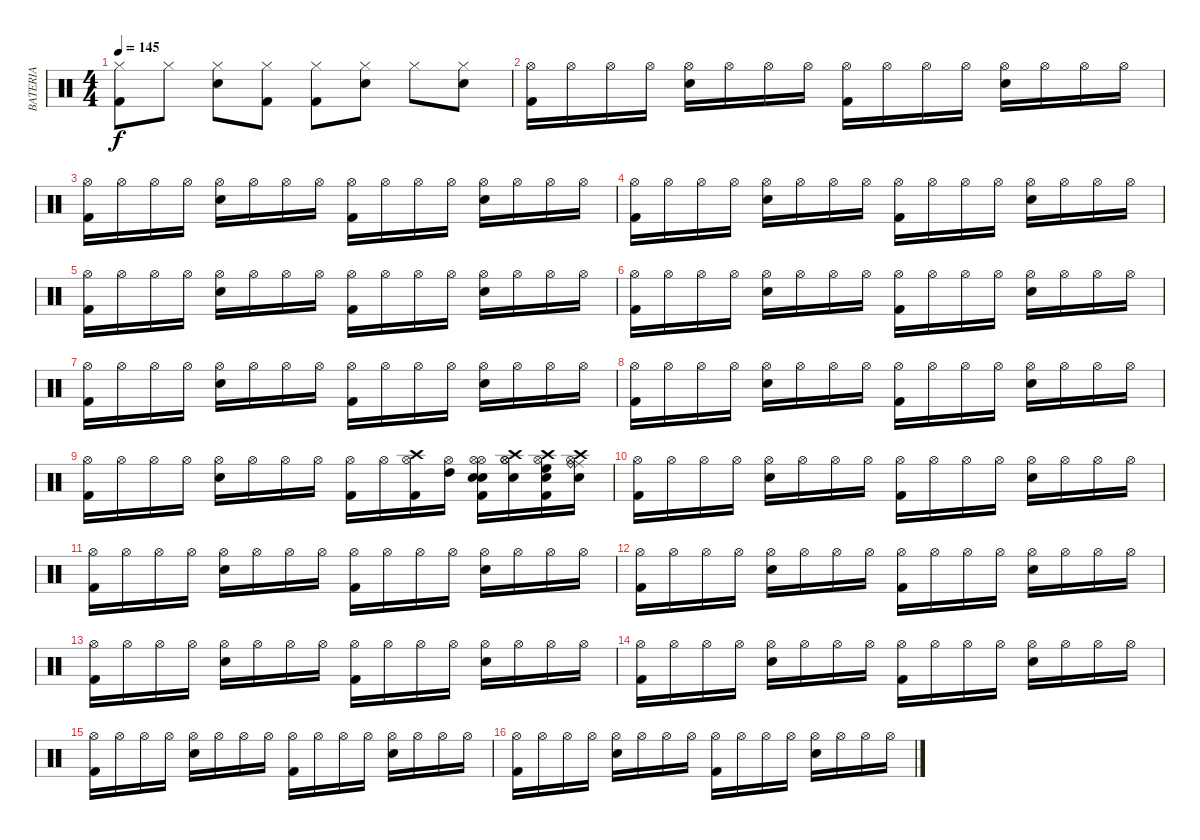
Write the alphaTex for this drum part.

\track ("BATERIA" "BATERIA") {instrument percussion}
\staff {score}
\articulation defaults
\ts (4 4)
\tempo 145
\clef neutral
\ks c
("Kick (hit) 2" "Hi-Hat (closed)").8{dy f} "Hi-Hat (closed)".8 ("Snare (hit) 2" "Hi-Hat (closed)").8 ("Kick (hit) 2" "Hi-Hat (closed)").8 ("Kick (hit) 2" "Hi-Hat (closed)").8 ("Snare (hit) 2" "Hi-Hat (closed)").8 "Hi-Hat (closed)".8 ("Snare (hit) 2" "Hi-Hat (closed)").8 |
("Hi-Hat (open)" "Kick (hit) 2").16 "Hi-Hat (open)".16 "Hi-Hat (open)".16 "Hi-Hat (open)".16 ("Hi-Hat (open)" "Snare (hit) 2").16 "Hi-Hat (open)".16 "Hi-Hat (open)".16 "Hi-Hat (open)".16 ("Hi-Hat (open)" "Kick (hit) 2").16 "Hi-Hat (open)".16 "Hi-Hat (open)".16 "Hi-Hat (open)".16 ("Hi-Hat (open)" "Snare (hit) 2").16 "Hi-Hat (open)".16 "Hi-Hat (open)".16 "Hi-Hat (open)".16 |
("Hi-Hat (open)" "Kick (hit) 2").16 "Hi-Hat (open)".16 "Hi-Hat (open)".16 "Hi-Hat (open)".16 ("Hi-Hat (open)" "Snare (hit) 2").16 "Hi-Hat (open)".16 "Hi-Hat (open)".16 "Hi-Hat (open)".16 ("Hi-Hat (open)" "Kick (hit) 2").16 "Hi-Hat (open)".16 "Hi-Hat (open)".16 "Hi-Hat (open)".16 ("Hi-Hat (open)" "Snare (hit) 2").16 "Hi-Hat (open)".16 "Hi-Hat (open)".16 "Hi-Hat (open)".16 |
("Hi-Hat (open)" "Kick (hit) 2").16 "Hi-Hat (open)".16 "Hi-Hat (open)".16 "Hi-Hat (open)".16 ("Hi-Hat (open)" "Snare (hit) 2").16 "Hi-Hat (open)".16 "Hi-Hat (open)".16 "Hi-Hat (open)".16 ("Hi-Hat (open)" "Kick (hit) 2").16 "Hi-Hat (open)".16 "Hi-Hat (open)".16 "Hi-Hat (open)".16 ("Hi-Hat (open)" "Snare (hit) 2").16 "Hi-Hat (open)".16 "Hi-Hat (open)".16 "Hi-Hat (open)".16 |
("Hi-Hat (open)" "Kick (hit) 2").16 "Hi-Hat (open)".16 "Hi-Hat (open)".16 "Hi-Hat (open)".16 ("Hi-Hat (open)" "Snare (hit) 2").16 "Hi-Hat (open)".16 "Hi-Hat (open)".16 "Hi-Hat (open)".16 ("Hi-Hat (open)" "Kick (hit) 2").16 "Hi-Hat (open)".16 "Hi-Hat (open)".16 "Hi-Hat (open)".16 ("Hi-Hat (open)" "Snare (hit) 2").16 "Hi-Hat (open)".16 "Hi-Hat (open)".16 "Hi-Hat (open)".16 |
("Hi-Hat (open)" "Kick (hit) 2").16 "Hi-Hat (open)".16 "Hi-Hat (open)".16 "Hi-Hat (open)".16 ("Hi-Hat (open)" "Snare (hit) 2").16 "Hi-Hat (open)".16 "Hi-Hat (open)".16 "Hi-Hat (open)".16 ("Hi-Hat (open)" "Kick (hit) 2").16 "Hi-Hat (open)".16 "Hi-Hat (open)".16 "Hi-Hat (open)".16 ("Hi-Hat (open)" "Snare (hit) 2").16 "Hi-Hat (open)".16 "Hi-Hat (open)".16 "Hi-Hat (open)".16 |
("Hi-Hat (open)" "Kick (hit) 2").16 "Hi-Hat (open)".16 "Hi-Hat (open)".16 "Hi-Hat (open)".16 ("Hi-Hat (open)" "Snare (hit) 2").16 "Hi-Hat (open)".16 "Hi-Hat (open)".16 "Hi-Hat (open)".16 ("Hi-Hat (open)" "Kick (hit) 2").16 "Hi-Hat (open)".16 "Hi-Hat (open)".16 "Hi-Hat (open)".16 ("Hi-Hat (open)" "Snare (hit) 2").16 "Hi-Hat (open)".16 "Hi-Hat (open)".16 "Hi-Hat (open)".16 |
("Hi-Hat (open)" "Kick (hit) 2").16 "Hi-Hat (open)".16 "Hi-Hat (open)".16 "Hi-Hat (open)".16 ("Hi-Hat (open)" "Snare (hit) 2").16 "Hi-Hat (open)".16 "Hi-Hat (open)".16 "Hi-Hat (open)".16 ("Hi-Hat (open)" "Kick (hit) 2").16 "Hi-Hat (open)".16 "Hi-Hat (open)".16 "Hi-Hat (open)".16 ("Hi-Hat (open)" "Snare (hit) 2").16 "Hi-Hat (open)".16 "Hi-Hat (open)".16 "Hi-Hat (open)".16 |
("Hi-Hat (open)" "Kick (hit) 2").16 "Hi-Hat (open)".16 "Hi-Hat (open)".16 "Hi-Hat (open)".16 ("Hi-Hat (open)" "Snare (hit) 2").16 "Hi-Hat (open)".16 "Hi-Hat (open)".16 "Hi-Hat (open)".16 ("Hi-Hat (open)" "Kick (hit) 2").16 "Hi-Hat (open)".16 ("Hi-Hat (open)" "Kick (hit) 2" "Crash high (hit)").16 ("Hi-Hat (open)" "High Tom (hit)").16 ("Hi-Hat (open)" "Kick (hit) 2" "Snare (hit) 2" "Hi-Hat (open)" "Snare (hit) 2").16 ("Hi-Hat (open)" "Crash high (hit)" "Hi-Hat (open)" "Snare (hit) 2").16 ("Hi-Hat (open)" "Kick (hit) 2" "Crash high (hit)" "High Floor Tom (hit)" "Snare (hit) 2").16 ("Hi-Hat (open)" "Crash high (hit)" "Ride (middle)" "Ride (bell)" "Snare (hit) 2").16 |
("Hi-Hat (open)" "Kick (hit) 2").16 "Hi-Hat (open)".16 "Hi-Hat (open)".16 "Hi-Hat (open)".16 ("Hi-Hat (open)" "Snare (hit) 2").16 "Hi-Hat (open)".16 "Hi-Hat (open)".16 "Hi-Hat (open)".16 ("Hi-Hat (open)" "Kick (hit) 2").16 "Hi-Hat (open)".16 "Hi-Hat (open)".16 "Hi-Hat (open)".16 ("Hi-Hat (open)" "Snare (hit) 2").16 "Hi-Hat (open)".16 "Hi-Hat (open)".16 "Hi-Hat (open)".16 |
("Hi-Hat (open)" "Kick (hit) 2").16 "Hi-Hat (open)".16 "Hi-Hat (open)".16 "Hi-Hat (open)".16 ("Hi-Hat (open)" "Snare (hit) 2").16 "Hi-Hat (open)".16 "Hi-Hat (open)".16 "Hi-Hat (open)".16 ("Hi-Hat (open)" "Kick (hit) 2").16 "Hi-Hat (open)".16 "Hi-Hat (open)".16 "Hi-Hat (open)".16 ("Hi-Hat (open)" "Snare (hit) 2").16 "Hi-Hat (open)".16 "Hi-Hat (open)".16 "Hi-Hat (open)".16 |
("Hi-Hat (open)" "Kick (hit) 2").16 "Hi-Hat (open)".16 "Hi-Hat (open)".16 "Hi-Hat (open)".16 ("Hi-Hat (open)" "Snare (hit) 2").16 "Hi-Hat (open)".16 "Hi-Hat (open)".16 "Hi-Hat (open)".16 ("Hi-Hat (open)" "Kick (hit) 2").16 "Hi-Hat (open)".16 "Hi-Hat (open)".16 "Hi-Hat (open)".16 ("Hi-Hat (open)" "Snare (hit) 2").16 "Hi-Hat (open)".16 "Hi-Hat (open)".16 "Hi-Hat (open)".16 |
("Hi-Hat (open)" "Kick (hit) 2").16 "Hi-Hat (open)".16 "Hi-Hat (open)".16 "Hi-Hat (open)".16 ("Hi-Hat (open)" "Snare (hit) 2").16 "Hi-Hat (open)".16 "Hi-Hat (open)".16 "Hi-Hat (open)".16 ("Hi-Hat (open)" "Kick (hit) 2").16 "Hi-Hat (open)".16 "Hi-Hat (open)".16 "Hi-Hat (open)".16 ("Hi-Hat (open)" "Snare (hit) 2").16 "Hi-Hat (open)".16 "Hi-Hat (open)".16 "Hi-Hat (open)".16 |
("Hi-Hat (open)" "Kick (hit) 2").16 "Hi-Hat (open)".16 "Hi-Hat (open)".16 "Hi-Hat (open)".16 ("Hi-Hat (open)" "Snare (hit) 2").16 "Hi-Hat (open)".16 "Hi-Hat (open)".16 "Hi-Hat (open)".16 ("Hi-Hat (open)" "Kick (hit) 2").16 "Hi-Hat (open)".16 "Hi-Hat (open)".16 "Hi-Hat (open)".16 ("Hi-Hat (open)" "Snare (hit) 2").16 "Hi-Hat (open)".16 "Hi-Hat (open)".16 "Hi-Hat (open)".16 |
("Hi-Hat (open)" "Kick (hit) 2").16 "Hi-Hat (open)".16 "Hi-Hat (open)".16 "Hi-Hat (open)".16 ("Hi-Hat (open)" "Snare (hit) 2").16 "Hi-Hat (open)".16 "Hi-Hat (open)".16 "Hi-Hat (open)".16 ("Hi-Hat (open)" "Kick (hit) 2").16 "Hi-Hat (open)".16 "Hi-Hat (open)".16 "Hi-Hat (open)".16 ("Hi-Hat (open)" "Snare (hit) 2").16 "Hi-Hat (open)".16 "Hi-Hat (open)".16 "Hi-Hat (open)".16 |
("Hi-Hat (open)" "Kick (hit) 2").16 "Hi-Hat (open)".16 "Hi-Hat (open)".16 "Hi-Hat (open)".16 ("Hi-Hat (open)" "Snare (hit) 2").16 "Hi-Hat (open)".16 "Hi-Hat (open)".16 "Hi-Hat (open)".16 ("Hi-Hat (open)" "Kick (hit) 2").16 "Hi-Hat (open)".16 "Hi-Hat (open)".16 "Hi-Hat (open)".16 ("Hi-Hat (open)" "Snare (hit) 2").16 "Hi-Hat (open)".16 "Hi-Hat (open)".16 "Hi-Hat (open)".16
